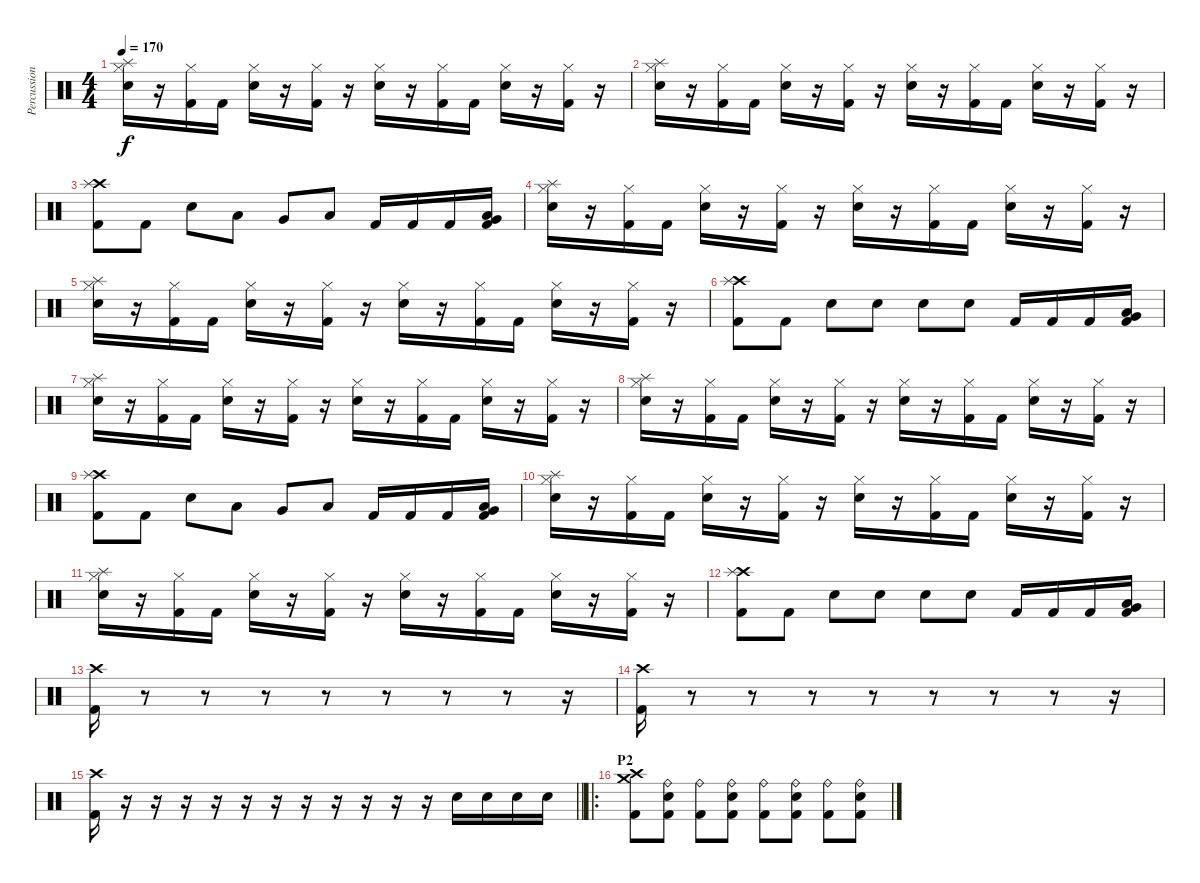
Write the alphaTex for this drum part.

\track ("Percussion" "Percussion") {instrument percussion}
\staff {score}
\articulation defaults
\ts (4 4)
\tempo 170
\clef neutral
\ks c
("Splash (hit)" "Hi-Hat (closed)" "Snare (hit) 2").16{dy f} r.16 ("Hi-Hat (closed)" "Kick (hit) 2").16 "Kick (hit) 2".16 ("Hi-Hat (closed)" "Snare (hit) 2").16 r.16 ("Hi-Hat (closed)" "Kick (hit) 2").16 r.16 ("Hi-Hat (closed)" "Snare (hit) 2").16 r.16 ("Hi-Hat (closed)" "Kick (hit) 2").16 "Kick (hit) 2".16 ("Hi-Hat (closed)" "Snare (hit) 2").16 r.16 ("Hi-Hat (closed)" "Kick (hit) 2").16 r.16 |
("Splash (hit)" "Hi-Hat (closed)" "Snare (hit) 2").16 r.16 ("Hi-Hat (closed)" "Kick (hit) 2").16 "Kick (hit) 2".16 ("Hi-Hat (closed)" "Snare (hit) 2").16 r.16 ("Hi-Hat (closed)" "Kick (hit) 2").16 r.16 ("Hi-Hat (closed)" "Snare (hit) 2").16 r.16 ("Hi-Hat (closed)" "Kick (hit) 2").16 "Kick (hit) 2".16 ("Hi-Hat (closed)" "Snare (hit) 2").16 r.16 ("Hi-Hat (closed)" "Kick (hit) 2").16 r.16 |
("Crash high (hit)" "Splash (hit)" "Kick (hit) 2").8 "Kick (hit) 2".8 "Snare (hit) 2".8 "Low Tom (hit)".8 "Very Low Tom (hit)".8 "Low Floor Tom (hit)".8 "Kick (hit) 2".16 "Kick (hit) 2".16 "Kick (hit) 2".16 ("Low Floor Tom (hit)" "Very Low Tom (hit)" "Kick (hit) 2").16 |
("Splash (hit)" "Hi-Hat (closed)" "Snare (hit) 2").16 r.16 ("Hi-Hat (closed)" "Kick (hit) 2").16 "Kick (hit) 2".16 ("Hi-Hat (closed)" "Snare (hit) 2").16 r.16 ("Hi-Hat (closed)" "Kick (hit) 2").16 r.16 ("Hi-Hat (closed)" "Snare (hit) 2").16 r.16 ("Hi-Hat (closed)" "Kick (hit) 2").16 "Kick (hit) 2".16 ("Hi-Hat (closed)" "Snare (hit) 2").16 r.16 ("Hi-Hat (closed)" "Kick (hit) 2").16 r.16 |
("Splash (hit)" "Hi-Hat (closed)" "Snare (hit) 2").16 r.16 ("Hi-Hat (closed)" "Kick (hit) 2").16 "Kick (hit) 2".16 ("Hi-Hat (closed)" "Snare (hit) 2").16 r.16 ("Hi-Hat (closed)" "Kick (hit) 2").16 r.16 ("Hi-Hat (closed)" "Snare (hit) 2").16 r.16 ("Hi-Hat (closed)" "Kick (hit) 2").16 "Kick (hit) 2".16 ("Hi-Hat (closed)" "Snare (hit) 2").16 r.16 ("Hi-Hat (closed)" "Kick (hit) 2").16 r.16 |
("Crash high (hit)" "Splash (hit)" "Kick (hit) 2").8 "Kick (hit) 2".8 "Snare (hit) 2".8 "Snare (hit) 2".8 "Snare (hit) 2".8 "Snare (hit) 2".8 "Kick (hit) 2".16 "Kick (hit) 2".16 "Kick (hit) 2".16 ("Low Floor Tom (hit)" "Very Low Tom (hit)" "Kick (hit) 2").16 |
("Splash (hit)" "Hi-Hat (closed)" "Snare (hit) 2").16 r.16 ("Hi-Hat (closed)" "Kick (hit) 2").16 "Kick (hit) 2".16 ("Hi-Hat (closed)" "Snare (hit) 2").16 r.16 ("Hi-Hat (closed)" "Kick (hit) 2").16 r.16 ("Hi-Hat (closed)" "Snare (hit) 2").16 r.16 ("Hi-Hat (closed)" "Kick (hit) 2").16 "Kick (hit) 2".16 ("Hi-Hat (closed)" "Snare (hit) 2").16 r.16 ("Hi-Hat (closed)" "Kick (hit) 2").16 r.16 |
("Splash (hit)" "Hi-Hat (closed)" "Snare (hit) 2").16 r.16 ("Hi-Hat (closed)" "Kick (hit) 2").16 "Kick (hit) 2".16 ("Hi-Hat (closed)" "Snare (hit) 2").16 r.16 ("Hi-Hat (closed)" "Kick (hit) 2").16 r.16 ("Hi-Hat (closed)" "Snare (hit) 2").16 r.16 ("Hi-Hat (closed)" "Kick (hit) 2").16 "Kick (hit) 2".16 ("Hi-Hat (closed)" "Snare (hit) 2").16 r.16 ("Hi-Hat (closed)" "Kick (hit) 2").16 r.16 |
("Crash high (hit)" "Splash (hit)" "Kick (hit) 2").8 "Kick (hit) 2".8 "Snare (hit) 2".8 "Low Tom (hit)".8 "Very Low Tom (hit)".8 "Low Floor Tom (hit)".8 "Kick (hit) 2".16 "Kick (hit) 2".16 "Kick (hit) 2".16 ("Low Floor Tom (hit)" "Very Low Tom (hit)" "Kick (hit) 2").16 |
("Splash (hit)" "Hi-Hat (closed)" "Snare (hit) 2").16 r.16 ("Hi-Hat (closed)" "Kick (hit) 2").16 "Kick (hit) 2".16 ("Hi-Hat (closed)" "Snare (hit) 2").16 r.16 ("Hi-Hat (closed)" "Kick (hit) 2").16 r.16 ("Hi-Hat (closed)" "Snare (hit) 2").16 r.16 ("Hi-Hat (closed)" "Kick (hit) 2").16 "Kick (hit) 2".16 ("Hi-Hat (closed)" "Snare (hit) 2").16 r.16 ("Hi-Hat (closed)" "Kick (hit) 2").16 r.16 |
("Splash (hit)" "Hi-Hat (closed)" "Snare (hit) 2").16 r.16 ("Hi-Hat (closed)" "Kick (hit) 2").16 "Kick (hit) 2".16 ("Hi-Hat (closed)" "Snare (hit) 2").16 r.16 ("Hi-Hat (closed)" "Kick (hit) 2").16 r.16 ("Hi-Hat (closed)" "Snare (hit) 2").16 r.16 ("Hi-Hat (closed)" "Kick (hit) 2").16 "Kick (hit) 2".16 ("Hi-Hat (closed)" "Snare (hit) 2").16 r.16 ("Hi-Hat (closed)" "Kick (hit) 2").16 r.16 |
("Crash high (hit)" "Splash (hit)" "Kick (hit) 2").8 "Kick (hit) 2".8 "Snare (hit) 2".8 "Snare (hit) 2".8 "Snare (hit) 2".8 "Snare (hit) 2".8 "Kick (hit) 2".16 "Kick (hit) 2".16 "Kick (hit) 2".16 ("Low Floor Tom (hit)" "Very Low Tom (hit)" "Kick (hit) 2").16 |
("Crash high (hit)" "Kick (hit) 2").16 r.8 r.8 r.8 r.8 r.8 r.8 r.8 r.16 |
("Crash high (hit)" "Kick (hit) 2").16 r.8 r.8 r.8 r.8 r.8 r.8 r.8 r.16 |
\barLineRight lightlight
("Crash high (hit)" "Kick (hit) 2").16 r.16 r.16 r.16 r.16 r.16 r.16 r.16 r.16 r.16 r.16 r.16 "Snare (hit) 2".16 "Snare (hit) 2".16 "Snare (hit) 2".16 "Snare (hit) 2".16 |
\ro
\section ("" "P2")
("Crash high (hit)" "Crash medium (hit)" "Kick (hit) 2").8 ("Ride (bell)" "Snare (hit) 2" "Kick (hit) 2").8 ("Ride (bell)" "Kick (hit) 2").8 ("Ride (bell)" "Snare (hit) 2" "Kick (hit) 2").8 ("Ride (bell)" "Kick (hit) 2").8 ("Ride (bell)" "Snare (hit) 2" "Kick (hit) 2").8 ("Ride (bell)" "Kick (hit) 2").8 ("Ride (bell)" "Snare (hit) 2" "Kick (hit) 2").8
